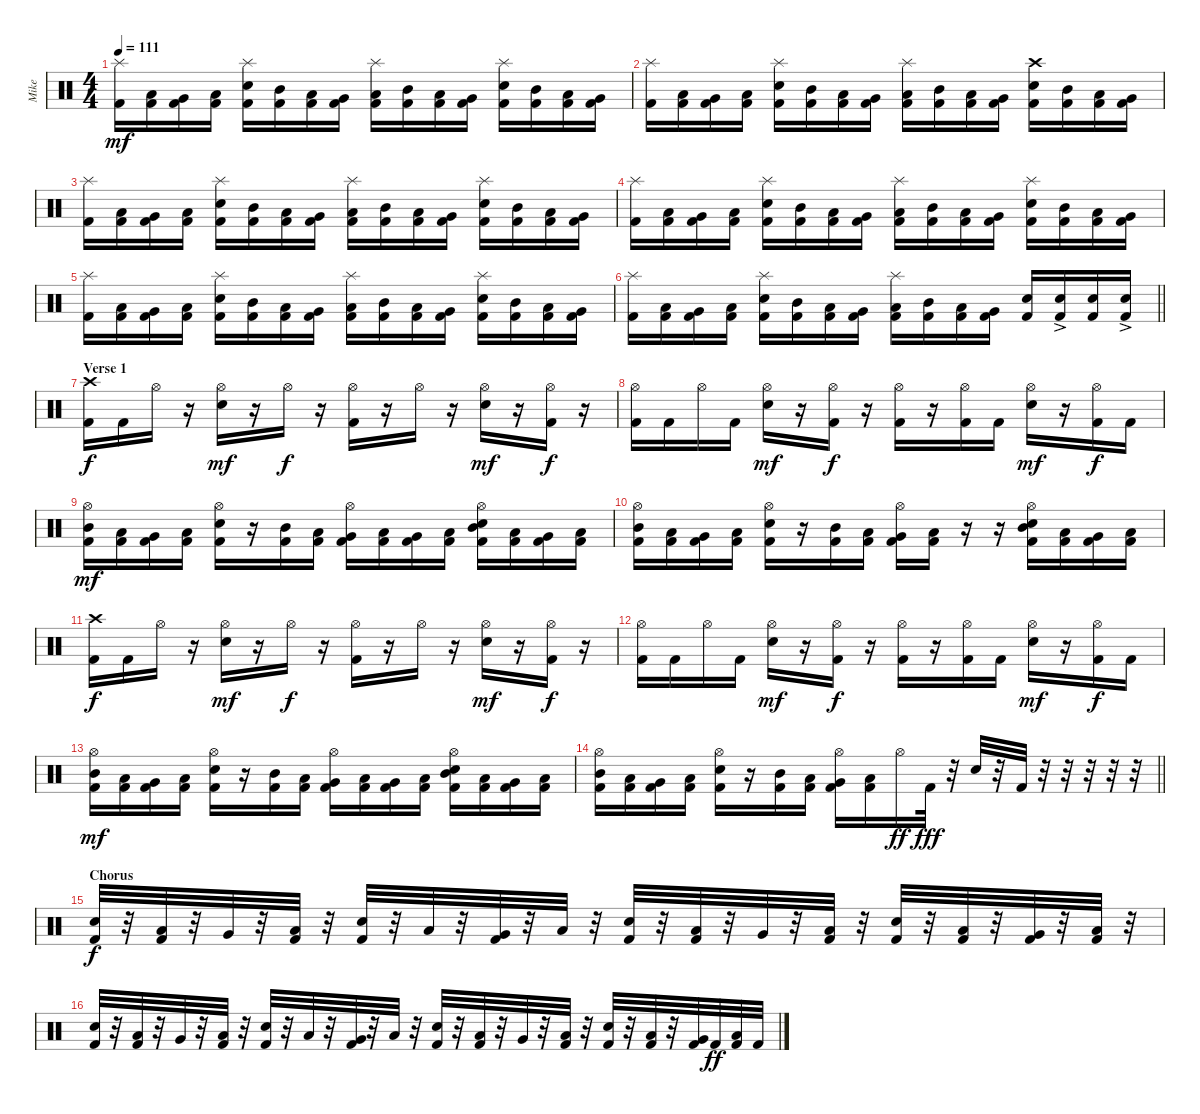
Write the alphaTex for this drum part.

\track ("Mike" "Mike") {instrument percussion}
\staff {score}
\articulation defaults
\ts (4 4)
\tempo 111
\clef neutral
\ks c
("Splash (hit)" "Kick (hit) 2").16{dy mf} ("Low Tom (hit)" "Kick (hit) 2").16 ("Very Low Tom (hit)" "Kick (hit) 2").16 ("Low Tom (hit)" "Kick (hit) 2").16 ("Splash (hit)" "Snare (hit) 2" "Kick (hit) 2").16 ("Mid Tom (hit)" "Kick (hit) 2").16 ("Low Tom (hit)" "Kick (hit) 2").16 ("Very Low Tom (hit)" "Kick (hit) 2").16 ("Splash (hit)" "Low Tom (hit)" "Kick (hit) 2").16 ("Mid Tom (hit)" "Kick (hit) 2").16 ("Low Tom (hit)" "Kick (hit) 2").16 ("Very Low Tom (hit)" "Kick (hit) 2").16 ("Splash (hit)" "Snare (hit) 2" "Kick (hit) 2").16 ("Mid Tom (hit)" "Kick (hit) 2").16 ("Low Tom (hit)" "Kick (hit) 2").16 ("Very Low Tom (hit)" "Kick (hit) 2").16 |
("Splash (hit)" "Kick (hit) 2").16 ("Low Tom (hit)" "Kick (hit) 2").16 ("Very Low Tom (hit)" "Kick (hit) 2").16 ("Low Tom (hit)" "Kick (hit) 2").16 ("Splash (hit)" "Snare (hit) 2" "Kick (hit) 2").16 ("Mid Tom (hit)" "Kick (hit) 2").16 ("Low Tom (hit)" "Kick (hit) 2").16 ("Very Low Tom (hit)" "Kick (hit) 2").16 ("Splash (hit)" "Low Tom (hit)" "Kick (hit) 2").16 ("Mid Tom (hit)" "Kick (hit) 2").16 ("Low Tom (hit)" "Kick (hit) 2").16 ("Very Low Tom (hit)" "Kick (hit) 2").16 ("Crash high (hit)" "Snare (hit) 2" "Kick (hit) 2").16 ("Mid Tom (hit)" "Kick (hit) 2").16 ("Low Tom (hit)" "Kick (hit) 2").16 ("Very Low Tom (hit)" "Kick (hit) 2").16 |
("Splash (hit)" "Kick (hit) 2").16 ("Low Tom (hit)" "Kick (hit) 2").16 ("Very Low Tom (hit)" "Kick (hit) 2").16 ("Low Tom (hit)" "Kick (hit) 2").16 ("Splash (hit)" "Snare (hit) 2" "Kick (hit) 2").16 ("Mid Tom (hit)" "Kick (hit) 2").16 ("Low Tom (hit)" "Kick (hit) 2").16 ("Very Low Tom (hit)" "Kick (hit) 2").16 ("Splash (hit)" "Low Tom (hit)" "Kick (hit) 2").16 ("Mid Tom (hit)" "Kick (hit) 2").16 ("Low Tom (hit)" "Kick (hit) 2").16 ("Very Low Tom (hit)" "Kick (hit) 2").16 ("Splash (hit)" "Snare (hit) 2" "Kick (hit) 2").16 ("Mid Tom (hit)" "Kick (hit) 2").16 ("Low Tom (hit)" "Kick (hit) 2").16 ("Very Low Tom (hit)" "Kick (hit) 2").16 |
("Splash (hit)" "Kick (hit) 2").16 ("Low Tom (hit)" "Kick (hit) 2").16 ("Very Low Tom (hit)" "Kick (hit) 2").16 ("Low Tom (hit)" "Kick (hit) 2").16 ("Splash (hit)" "Snare (hit) 2" "Kick (hit) 2").16 ("Mid Tom (hit)" "Kick (hit) 2").16 ("Low Tom (hit)" "Kick (hit) 2").16 ("Very Low Tom (hit)" "Kick (hit) 2").16 ("Splash (hit)" "Low Tom (hit)" "Kick (hit) 2").16 ("Mid Tom (hit)" "Kick (hit) 2").16 ("Low Tom (hit)" "Kick (hit) 2").16 ("Very Low Tom (hit)" "Kick (hit) 2").16 ("Splash (hit)" "Snare (hit) 2" "Kick (hit) 2").16 ("Mid Tom (hit)" "Kick (hit) 2").16 ("Low Tom (hit)" "Kick (hit) 2").16 ("Very Low Tom (hit)" "Kick (hit) 2").16 |
("Splash (hit)" "Kick (hit) 2").16 ("Low Tom (hit)" "Kick (hit) 2").16 ("Very Low Tom (hit)" "Kick (hit) 2").16 ("Low Tom (hit)" "Kick (hit) 2").16 ("Splash (hit)" "Snare (hit) 2" "Kick (hit) 2").16 ("Mid Tom (hit)" "Kick (hit) 2").16 ("Low Tom (hit)" "Kick (hit) 2").16 ("Very Low Tom (hit)" "Kick (hit) 2").16 ("Splash (hit)" "Low Tom (hit)" "Kick (hit) 2").16 ("Mid Tom (hit)" "Kick (hit) 2").16 ("Low Tom (hit)" "Kick (hit) 2").16 ("Very Low Tom (hit)" "Kick (hit) 2").16 ("Splash (hit)" "Snare (hit) 2" "Kick (hit) 2").16 ("Mid Tom (hit)" "Kick (hit) 2").16 ("Low Tom (hit)" "Kick (hit) 2").16 ("Very Low Tom (hit)" "Kick (hit) 2").16 |
\barLineRight lightlight
("Splash (hit)" "Kick (hit) 2").16 ("Low Tom (hit)" "Kick (hit) 2").16 ("Very Low Tom (hit)" "Kick (hit) 2").16 ("Low Tom (hit)" "Kick (hit) 2").16 ("Splash (hit)" "Snare (hit) 2" "Kick (hit) 2").16 ("Mid Tom (hit)" "Kick (hit) 2").16 ("Low Tom (hit)" "Kick (hit) 2").16 ("Very Low Tom (hit)" "Kick (hit) 2").16 ("Splash (hit)" "Low Tom (hit)" "Kick (hit) 2").16 ("Mid Tom (hit)" "Kick (hit) 2").16 ("Low Tom (hit)" "Kick (hit) 2").16 ("Very Low Tom (hit)" "Kick (hit) 2").16 ("Snare (hit) 2" "Kick (hit) 2").16 ("Snare (hit) 2"{ac} "Kick (hit) 2").16 ("Snare (hit) 2" "Kick (hit) 2").16 ("Snare (hit) 2"{ac} "Kick (hit) 2").16 |
\section ("" "Verse 1")
("Crash high (hit)" "Kick (hit) 2").16{dy f} "Kick (hit) 2".16 "Hi-Hat (open)".16 r.16 ("Hi-Hat (open)" "Snare (hit) 2").16{dy mf} r.16 "Hi-Hat (open)".16{dy f} r.16 ("Hi-Hat (open)" "Kick (hit) 2").16 r.16 "Hi-Hat (open)".16 r.16 ("Hi-Hat (open)" "Snare (hit) 2").16{dy mf} r.16 ("Hi-Hat (open)" "Kick (hit) 2").16{dy f} r.16 |
("Hi-Hat (open)" "Kick (hit) 2").16 "Kick (hit) 2".16 "Hi-Hat (open)".16 "Kick (hit) 2".16 ("Hi-Hat (open)" "Snare (hit) 2").16{dy mf} r.16 ("Hi-Hat (open)" "Kick (hit) 2").16{dy f} r.16 ("Hi-Hat (open)" "Kick (hit) 2").16 r.16 ("Hi-Hat (open)" "Kick (hit) 2").16 "Kick (hit) 2".16 ("Hi-Hat (open)" "Snare (hit) 2").16{dy mf} r.16 ("Hi-Hat (open)" "Kick (hit) 2").16{dy f} "Kick (hit) 2".16 |
("Hi-Hat (open)" "Mid Tom (hit)" "Kick (hit) 2").16{dy mf} ("Low Tom (hit)" "Kick (hit) 2").16 ("Very Low Tom (hit)" "Kick (hit) 2").16 ("Low Tom (hit)" "Kick (hit) 2").16 ("Hi-Hat (open)" "Snare (hit) 2" "Kick (hit) 2").16 r.16 ("Mid Tom (hit)" "Kick (hit) 2").16 ("Low Tom (hit)" "Kick (hit) 2").16 ("Hi-Hat (open)" "Very Low Tom (hit)" "Kick (hit) 2").16 ("Low Tom (hit)" "Kick (hit) 2").16 ("Very Low Tom (hit)" "Kick (hit) 2").16 ("Low Tom (hit)" "Kick (hit) 2").16 ("Hi-Hat (open)" "Mid Tom (hit)" "Snare (hit) 2" "Kick (hit) 2").16 ("Low Tom (hit)" "Kick (hit) 2").16 ("Very Low Tom (hit)" "Kick (hit) 2").16 ("Low Tom (hit)" "Kick (hit) 2").16 |
("Hi-Hat (open)" "Mid Tom (hit)" "Kick (hit) 2").16 ("Low Tom (hit)" "Kick (hit) 2").16 ("Very Low Tom (hit)" "Kick (hit) 2").16 ("Low Tom (hit)" "Kick (hit) 2").16 ("Hi-Hat (open)" "Snare (hit) 2" "Kick (hit) 2").16 r.16 ("Mid Tom (hit)" "Kick (hit) 2").16 ("Low Tom (hit)" "Kick (hit) 2").16 ("Hi-Hat (open)" "Very Low Tom (hit)" "Kick (hit) 2").16 ("Low Tom (hit)" "Kick (hit) 2").16 r.16 r.16 ("Hi-Hat (open)" "Mid Tom (hit)" "Snare (hit) 2" "Kick (hit) 2").16 ("Low Tom (hit)" "Kick (hit) 2").16 ("Very Low Tom (hit)" "Kick (hit) 2").16 ("Low Tom (hit)" "Kick (hit) 2").16 |
("Crash high (hit)" "Kick (hit) 2").16{dy f} "Kick (hit) 2".16 "Hi-Hat (open)".16 r.16 ("Hi-Hat (open)" "Snare (hit) 2").16{dy mf} r.16 "Hi-Hat (open)".16{dy f} r.16 ("Hi-Hat (open)" "Kick (hit) 2").16 r.16 "Hi-Hat (open)".16 r.16 ("Hi-Hat (open)" "Snare (hit) 2").16{dy mf} r.16 ("Hi-Hat (open)" "Kick (hit) 2").16{dy f} r.16 |
("Hi-Hat (open)" "Kick (hit) 2").16 "Kick (hit) 2".16 "Hi-Hat (open)".16 "Kick (hit) 2".16 ("Hi-Hat (open)" "Snare (hit) 2").16{dy mf} r.16 ("Hi-Hat (open)" "Kick (hit) 2").16{dy f} r.16 ("Hi-Hat (open)" "Kick (hit) 2").16 r.16 ("Hi-Hat (open)" "Kick (hit) 2").16 "Kick (hit) 2".16 ("Hi-Hat (open)" "Snare (hit) 2").16{dy mf} r.16 ("Hi-Hat (open)" "Kick (hit) 2").16{dy f} "Kick (hit) 2".16 |
("Hi-Hat (open)" "Mid Tom (hit)" "Kick (hit) 2").16{dy mf} ("Low Tom (hit)" "Kick (hit) 2").16 ("Very Low Tom (hit)" "Kick (hit) 2").16 ("Low Tom (hit)" "Kick (hit) 2").16 ("Hi-Hat (open)" "Snare (hit) 2" "Kick (hit) 2").16 r.16 ("Mid Tom (hit)" "Kick (hit) 2").16 ("Low Tom (hit)" "Kick (hit) 2").16 ("Hi-Hat (open)" "Very Low Tom (hit)" "Kick (hit) 2").16 ("Low Tom (hit)" "Kick (hit) 2").16 ("Very Low Tom (hit)" "Kick (hit) 2").16 ("Low Tom (hit)" "Kick (hit) 2").16 ("Hi-Hat (open)" "Mid Tom (hit)" "Snare (hit) 2" "Kick (hit) 2").16 ("Low Tom (hit)" "Kick (hit) 2").16 ("Very Low Tom (hit)" "Kick (hit) 2").16 ("Low Tom (hit)" "Kick (hit) 2").16 |
\barLineRight lightlight
("Hi-Hat (open)" "Mid Tom (hit)" "Kick (hit) 2").16 ("Low Tom (hit)" "Kick (hit) 2").16 ("Very Low Tom (hit)" "Kick (hit) 2").16 ("Low Tom (hit)" "Kick (hit) 2").16 ("Hi-Hat (open)" "Snare (hit) 2" "Kick (hit) 2").16 r.16 ("Mid Tom (hit)" "Kick (hit) 2").16 ("Low Tom (hit)" "Kick (hit) 2").16 ("Hi-Hat (open)" "Very Low Tom (hit)" "Kick (hit) 2").16 ("Low Tom (hit)" "Kick (hit) 2").16 "Hi-Hat (open)".16{dy ff} "Kick (hit) 2".32{dy fff} r.32 "Snare (hit) 2".32 r.32 "Kick (hit) 2".32 r.32 r.32 r.32 r.32 r.32 |
\section ("" "Chorus")
("Snare (hit) 2" "Kick (hit) 2").32{dy f} r.32 ("Low Tom (hit)" "Kick (hit) 2").32 r.32 "Very Low Tom (hit)".32 r.32 ("Low Floor Tom (hit)" "Kick (hit) 2").32 r.32 ("Snare (hit) 2" "Kick (hit) 2").32 r.32 "Low Tom (hit)".32 r.32 ("Very Low Tom (hit)" "Kick (hit) 2").32 r.32 "Low Floor Tom (hit)".32 r.32 ("Snare (hit) 2" "Kick (hit) 2").32 r.32 ("Low Tom (hit)" "Kick (hit) 2").32 r.32 "Very Low Tom (hit)".32 r.32 ("Low Floor Tom (hit)" "Kick (hit) 2").32 r.32 ("Snare (hit) 2" "Kick (hit) 2").32 r.32 ("Low Tom (hit)" "Kick (hit) 2").32 r.32 ("Very Low Tom (hit)" "Kick (hit) 2").32 r.32 ("Low Floor Tom (hit)" "Kick (hit) 2").32 r.32 |
("Snare (hit) 2" "Kick (hit) 2").32 r.32 ("Low Tom (hit)" "Kick (hit) 2").32 r.32 "Very Low Tom (hit)".32 r.32 ("Low Floor Tom (hit)" "Kick (hit) 2").32 r.32 ("Snare (hit) 2" "Kick (hit) 2").32 r.32 "Low Tom (hit)".32 r.32 ("Very Low Tom (hit)" "Kick (hit) 2").32 r.32 "Low Floor Tom (hit)".32 r.32 ("Snare (hit) 2" "Kick (hit) 2").32 r.32 ("Low Tom (hit)" "Kick (hit) 2").32 r.32 "Very Low Tom (hit)".32 r.32 ("Low Floor Tom (hit)" "Kick (hit) 2").32 r.32 ("Snare (hit) 2" "Kick (hit) 2").32 r.32 ("Low Tom (hit)" "Kick (hit) 2").32 r.32 ("Very Low Tom (hit)" "Kick (hit) 2").32 "Kick (hit) 2".32{dy ff} ("Low Floor Tom (hit)" "Kick (hit) 2").32 "Kick (hit) 2".32
